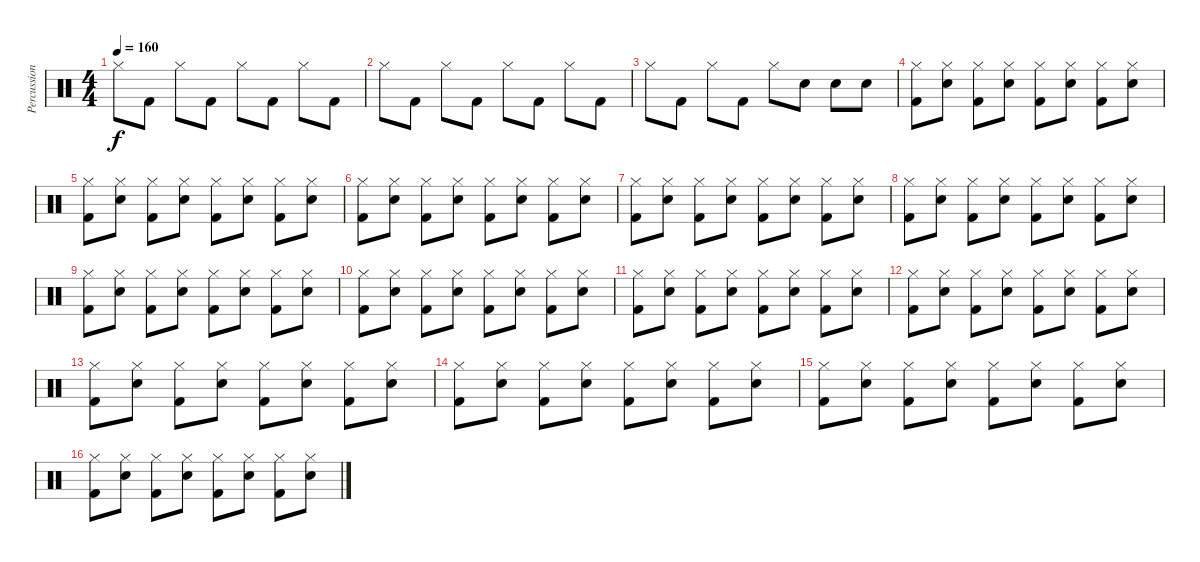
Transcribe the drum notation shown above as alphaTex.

\track ("Percussions" "Percussion") {instrument percussion}
\staff {score}
\articulation defaults
\ts (4 4)
\tempo 160
\clef neutral
\ks c "Hi-Hat (closed)".8{dy f} "Kick (hit) 2".8 "Hi-Hat (closed)".8 "Kick (hit) 2".8 "Hi-Hat (closed)".8 "Kick (hit) 2".8 "Hi-Hat (closed)".8 "Kick (hit) 2".8
|
"Hi-Hat (closed)".8 "Kick (hit) 2".8 "Hi-Hat (closed)".8 "Kick (hit) 2".8 "Hi-Hat (closed)".8 "Kick (hit) 2".8 "Hi-Hat (closed)".8 "Kick (hit) 2".8 |
"Hi-Hat (closed)".8 "Kick (hit) 2".8 "Hi-Hat (closed)".8 "Kick (hit) 2".8 "Hi-Hat (closed)".8 "Electric Snare (hit)".8 "Electric Snare (hit)".8 "Electric Snare (hit)".8 |
("Hi-Hat (closed)" "Kick (hit) 2").8 ("Hi-Hat (closed)" "Electric Snare (hit)").8 ("Hi-Hat (closed)" "Kick (hit) 2").8 ("Hi-Hat (closed)" "Electric Snare (hit)").8 ("Hi-Hat (closed)" "Kick (hit) 2").8 ("Hi-Hat (closed)" "Electric Snare (hit)").8 ("Hi-Hat (closed)" "Kick (hit) 2").8 ("Hi-Hat (closed)" "Electric Snare (hit)").8 |
("Hi-Hat (closed)" "Kick (hit) 2").8 ("Hi-Hat (closed)" "Electric Snare (hit)").8 ("Hi-Hat (closed)" "Kick (hit) 2").8 ("Hi-Hat (closed)" "Electric Snare (hit)").8 ("Hi-Hat (closed)" "Kick (hit) 2").8 ("Hi-Hat (closed)" "Electric Snare (hit)").8 ("Hi-Hat (closed)" "Kick (hit) 2").8 ("Hi-Hat (closed)" "Electric Snare (hit)").8 |
("Hi-Hat (closed)" "Kick (hit) 2").8 ("Hi-Hat (closed)" "Electric Snare (hit)").8 ("Hi-Hat (closed)" "Kick (hit) 2").8 ("Hi-Hat (closed)" "Electric Snare (hit)").8 ("Hi-Hat (closed)" "Kick (hit) 2").8 ("Hi-Hat (closed)" "Electric Snare (hit)").8 ("Hi-Hat (closed)" "Kick (hit) 2").8 ("Hi-Hat (closed)" "Electric Snare (hit)").8 |
("Hi-Hat (closed)" "Kick (hit) 2").8 ("Hi-Hat (closed)" "Electric Snare (hit)").8 ("Hi-Hat (closed)" "Kick (hit) 2").8 ("Hi-Hat (closed)" "Electric Snare (hit)").8 ("Hi-Hat (closed)" "Kick (hit) 2").8 ("Hi-Hat (closed)" "Electric Snare (hit)").8 ("Hi-Hat (closed)" "Kick (hit) 2").8 ("Hi-Hat (closed)" "Electric Snare (hit)").8 |
("Hi-Hat (closed)" "Kick (hit) 2").8 ("Hi-Hat (closed)" "Electric Snare (hit)").8 ("Hi-Hat (closed)" "Kick (hit) 2").8 ("Hi-Hat (closed)" "Electric Snare (hit)").8 ("Hi-Hat (closed)" "Kick (hit) 2").8 ("Hi-Hat (closed)" "Electric Snare (hit)").8 ("Hi-Hat (closed)" "Kick (hit) 2").8 ("Hi-Hat (closed)" "Electric Snare (hit)").8 |
("Hi-Hat (closed)" "Kick (hit) 2").8 ("Hi-Hat (closed)" "Electric Snare (hit)").8 ("Hi-Hat (closed)" "Kick (hit) 2").8 ("Hi-Hat (closed)" "Electric Snare (hit)").8 ("Hi-Hat (closed)" "Kick (hit) 2").8 ("Hi-Hat (closed)" "Electric Snare (hit)").8 ("Hi-Hat (closed)" "Kick (hit) 2").8 ("Hi-Hat (closed)" "Electric Snare (hit)").8 |
("Hi-Hat (closed)" "Kick (hit) 2").8 ("Hi-Hat (closed)" "Electric Snare (hit)").8 ("Hi-Hat (closed)" "Kick (hit) 2").8 ("Hi-Hat (closed)" "Electric Snare (hit)").8 ("Hi-Hat (closed)" "Kick (hit) 2").8 ("Hi-Hat (closed)" "Electric Snare (hit)").8 ("Hi-Hat (closed)" "Kick (hit) 2").8 ("Hi-Hat (closed)" "Electric Snare (hit)").8 |
("Hi-Hat (closed)" "Kick (hit) 2").8 ("Hi-Hat (closed)" "Electric Snare (hit)").8 ("Hi-Hat (closed)" "Kick (hit) 2").8 ("Hi-Hat (closed)" "Electric Snare (hit)").8 ("Hi-Hat (closed)" "Kick (hit) 2").8 ("Hi-Hat (closed)" "Electric Snare (hit)").8 ("Hi-Hat (closed)" "Kick (hit) 2").8 ("Hi-Hat (closed)" "Electric Snare (hit)").8 |
("Hi-Hat (closed)" "Kick (hit) 2").8 ("Hi-Hat (closed)" "Electric Snare (hit)").8 ("Hi-Hat (closed)" "Kick (hit) 2").8 ("Hi-Hat (closed)" "Electric Snare (hit)").8 ("Hi-Hat (closed)" "Kick (hit) 2").8 ("Hi-Hat (closed)" "Electric Snare (hit)").8 ("Hi-Hat (closed)" "Kick (hit) 2").8 ("Hi-Hat (closed)" "Electric Snare (hit)").8 |
("Hi-Hat (closed)" "Kick (hit) 2").8 ("Hi-Hat (closed)" "Electric Snare (hit)").8 ("Hi-Hat (closed)" "Kick (hit) 2").8 ("Hi-Hat (closed)" "Electric Snare (hit)").8 ("Hi-Hat (closed)" "Kick (hit) 2").8 ("Hi-Hat (closed)" "Electric Snare (hit)").8 ("Hi-Hat (closed)" "Kick (hit) 2").8 ("Hi-Hat (closed)" "Electric Snare (hit)").8 |
("Hi-Hat (closed)" "Kick (hit) 2").8 ("Hi-Hat (closed)" "Electric Snare (hit)").8 ("Hi-Hat (closed)" "Kick (hit) 2").8 ("Hi-Hat (closed)" "Electric Snare (hit)").8 ("Hi-Hat (closed)" "Kick (hit) 2").8 ("Hi-Hat (closed)" "Electric Snare (hit)").8 ("Hi-Hat (closed)" "Kick (hit) 2").8 ("Hi-Hat (closed)" "Electric Snare (hit)").8 |
("Hi-Hat (closed)" "Kick (hit) 2").8 ("Hi-Hat (closed)" "Electric Snare (hit)").8 ("Hi-Hat (closed)" "Kick (hit) 2").8 ("Hi-Hat (closed)" "Electric Snare (hit)").8 ("Hi-Hat (closed)" "Kick (hit) 2").8 ("Hi-Hat (closed)" "Electric Snare (hit)").8 ("Hi-Hat (closed)" "Kick (hit) 2").8 ("Hi-Hat (closed)" "Electric Snare (hit)").8 |
("Hi-Hat (closed)" "Kick (hit) 2").8 ("Hi-Hat (closed)" "Electric Snare (hit)").8 ("Hi-Hat (closed)" "Kick (hit) 2").8 ("Hi-Hat (closed)" "Electric Snare (hit)").8 ("Hi-Hat (closed)" "Kick (hit) 2").8 ("Hi-Hat (closed)" "Electric Snare (hit)").8 ("Hi-Hat (closed)" "Kick (hit) 2").8 ("Hi-Hat (closed)" "Electric Snare (hit)").8
